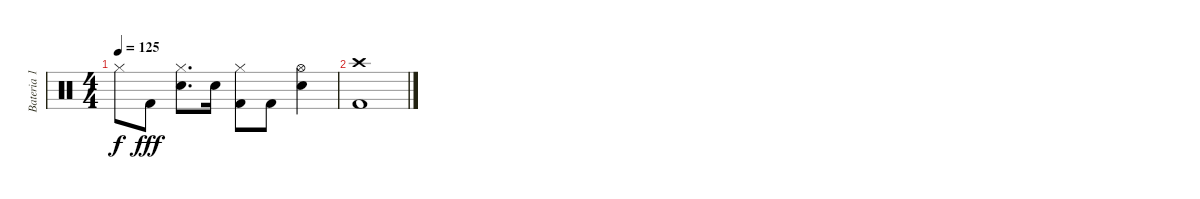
\track ("Bateria 1" "Bateria 1") {instrument percussion}
\staff {score}
\articulation defaults
\ts (4 4)
\tempo 125
\clef neutral
\ks c "Hi-Hat (closed)".8{dy f} "Kick (hit) 2".8{dy fff}
("Hi-Hat (closed)" "Electric Snare (hit)").8{d} "Electric Snare (hit)".16 ("Hi-Hat (closed)" "Kick (hit) 2").8 "Kick (hit) 2".8 ("Hi-Hat (open)" "Electric Snare (hit)").4 |
("Crash high (hit)" "Kick (hit) 2").1
